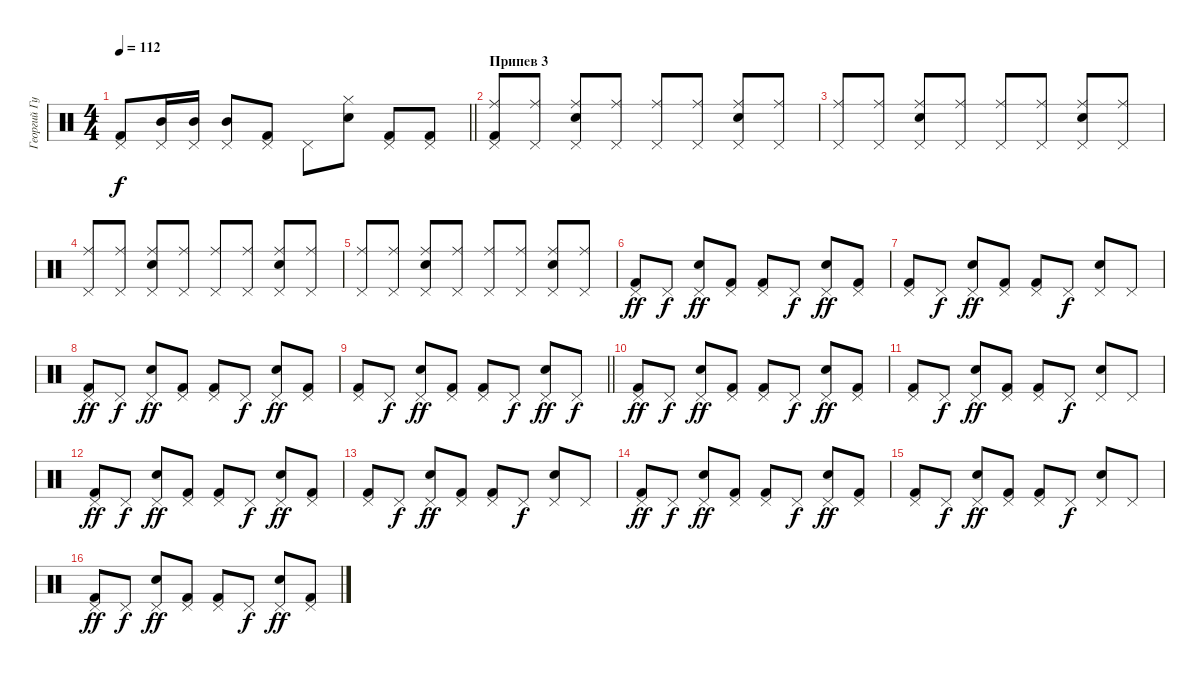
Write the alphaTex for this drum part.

\track ("Георгий Гурьянов" "Георгий Гу") {instrument percussion}
\staff {score}
\articulation defaults
\ts (4 4)
\tempo 112
\clef neutral
\barLineRight lightlight
\ks c
("Pedal Hi-Hat (hit)" "Kick (hit) 2").8{dy f} ("Pedal Hi-Hat (hit)" "Mid Tom (hit)").16 ("Pedal Hi-Hat (hit)" "Mid Tom (hit)").16 ("Pedal Hi-Hat (hit)" "Mid Tom (hit)").8 ("Pedal Hi-Hat (hit)" "Kick (hit) 2").8 "Pedal Hi-Hat (hit)".8 ("Hi-Hat (closed)" "Electric Snare (hit)").8 ("Pedal Hi-Hat (hit)" "Kick (hit) 2").8 ("Pedal Hi-Hat (hit)" "Kick (hit) 2").8 |
\section ("" "Припев 3")
("Pedal Hi-Hat (hit)" "Kick (hit) 2" "Ride (middle)").8 ("Pedal Hi-Hat (hit)" "Ride (middle)").8 ("Pedal Hi-Hat (hit)" "Electric Snare (hit)" "Ride (middle)").8 ("Pedal Hi-Hat (hit)" "Ride (middle)").8 ("Pedal Hi-Hat (hit)" "Ride (middle)").8 ("Pedal Hi-Hat (hit)" "Ride (middle)").8 ("Pedal Hi-Hat (hit)" "Electric Snare (hit)" "Ride (middle)").8 ("Pedal Hi-Hat (hit)" "Ride (middle)").8 |
("Pedal Hi-Hat (hit)" "Ride (middle)").8 ("Pedal Hi-Hat (hit)" "Ride (middle)").8 ("Pedal Hi-Hat (hit)" "Electric Snare (hit)" "Ride (middle)").8 ("Pedal Hi-Hat (hit)" "Ride (middle)").8 ("Pedal Hi-Hat (hit)" "Ride (middle)").8 ("Pedal Hi-Hat (hit)" "Ride (middle)").8 ("Pedal Hi-Hat (hit)" "Electric Snare (hit)" "Ride (middle)").8 ("Pedal Hi-Hat (hit)" "Ride (middle)").8 |
("Pedal Hi-Hat (hit)" "Ride (middle)").8 ("Pedal Hi-Hat (hit)" "Ride (middle)").8 ("Pedal Hi-Hat (hit)" "Electric Snare (hit)" "Ride (middle)").8 ("Pedal Hi-Hat (hit)" "Ride (middle)").8 ("Pedal Hi-Hat (hit)" "Ride (middle)").8 ("Pedal Hi-Hat (hit)" "Ride (middle)").8 ("Pedal Hi-Hat (hit)" "Electric Snare (hit)" "Ride (middle)").8 ("Pedal Hi-Hat (hit)" "Ride (middle)").8 |
("Pedal Hi-Hat (hit)" "Ride (middle)").8 ("Pedal Hi-Hat (hit)" "Ride (middle)").8 ("Pedal Hi-Hat (hit)" "Electric Snare (hit)" "Ride (middle)").8 ("Pedal Hi-Hat (hit)" "Ride (middle)").8 ("Pedal Hi-Hat (hit)" "Ride (middle)").8 ("Pedal Hi-Hat (hit)" "Ride (middle)").8 ("Pedal Hi-Hat (hit)" "Electric Snare (hit)" "Ride (middle)").8 ("Pedal Hi-Hat (hit)" "Ride (middle)").8 |
("Pedal Hi-Hat (hit)" "Kick (hit) 2").8{dy ff} "Pedal Hi-Hat (hit)".8{dy f} ("Pedal Hi-Hat (hit)" "Electric Snare (hit)").8{dy ff} ("Pedal Hi-Hat (hit)" "Kick (hit) 2").8 ("Pedal Hi-Hat (hit)" "Kick (hit) 2").8 "Pedal Hi-Hat (hit)".8{dy f} ("Pedal Hi-Hat (hit)" "Electric Snare (hit)").8{dy ff} ("Pedal Hi-Hat (hit)" "Kick (hit) 2").8 |
("Pedal Hi-Hat (hit)" "Kick (hit) 2").8 "Pedal Hi-Hat (hit)".8{dy f} ("Pedal Hi-Hat (hit)" "Electric Snare (hit)").8{dy ff} ("Pedal Hi-Hat (hit)" "Kick (hit) 2").8 ("Pedal Hi-Hat (hit)" "Kick (hit) 2").8 "Pedal Hi-Hat (hit)".8{dy f} ("Pedal Hi-Hat (hit)" "Electric Snare (hit)").8 "Pedal Hi-Hat (hit)".8 |
("Pedal Hi-Hat (hit)" "Kick (hit) 2").8{dy ff} "Pedal Hi-Hat (hit)".8{dy f} ("Pedal Hi-Hat (hit)" "Electric Snare (hit)").8{dy ff} ("Pedal Hi-Hat (hit)" "Kick (hit) 2").8 ("Pedal Hi-Hat (hit)" "Kick (hit) 2").8 "Pedal Hi-Hat (hit)".8{dy f} ("Pedal Hi-Hat (hit)" "Electric Snare (hit)").8{dy ff} ("Pedal Hi-Hat (hit)" "Kick (hit) 2").8 |
\barLineRight lightlight
("Pedal Hi-Hat (hit)" "Kick (hit) 2").8 "Pedal Hi-Hat (hit)".8{dy f} ("Pedal Hi-Hat (hit)" "Electric Snare (hit)").8{dy ff} ("Pedal Hi-Hat (hit)" "Kick (hit) 2").8 ("Pedal Hi-Hat (hit)" "Kick (hit) 2").8 "Pedal Hi-Hat (hit)".8{dy f} ("Pedal Hi-Hat (hit)" "Electric Snare (hit)").8{dy ff} "Pedal Hi-Hat (hit)".8{dy f} |
("Pedal Hi-Hat (hit)" "Kick (hit) 2").8{dy ff} "Pedal Hi-Hat (hit)".8{dy f} ("Pedal Hi-Hat (hit)" "Electric Snare (hit)").8{dy ff} ("Pedal Hi-Hat (hit)" "Kick (hit) 2").8 ("Pedal Hi-Hat (hit)" "Kick (hit) 2").8 "Pedal Hi-Hat (hit)".8{dy f} ("Pedal Hi-Hat (hit)" "Electric Snare (hit)").8{dy ff} ("Pedal Hi-Hat (hit)" "Kick (hit) 2").8 |
("Pedal Hi-Hat (hit)" "Kick (hit) 2").8 "Pedal Hi-Hat (hit)".8{dy f} ("Pedal Hi-Hat (hit)" "Electric Snare (hit)").8{dy ff} ("Pedal Hi-Hat (hit)" "Kick (hit) 2").8 ("Pedal Hi-Hat (hit)" "Kick (hit) 2").8 "Pedal Hi-Hat (hit)".8{dy f} ("Pedal Hi-Hat (hit)" "Electric Snare (hit)").8 "Pedal Hi-Hat (hit)".8 |
("Pedal Hi-Hat (hit)" "Kick (hit) 2").8{dy ff} "Pedal Hi-Hat (hit)".8{dy f} ("Pedal Hi-Hat (hit)" "Electric Snare (hit)").8{dy ff} ("Pedal Hi-Hat (hit)" "Kick (hit) 2").8 ("Pedal Hi-Hat (hit)" "Kick (hit) 2").8 "Pedal Hi-Hat (hit)".8{dy f} ("Pedal Hi-Hat (hit)" "Electric Snare (hit)").8{dy ff} ("Pedal Hi-Hat (hit)" "Kick (hit) 2").8 |
("Pedal Hi-Hat (hit)" "Kick (hit) 2").8 "Pedal Hi-Hat (hit)".8{dy f} ("Pedal Hi-Hat (hit)" "Electric Snare (hit)").8{dy ff} ("Pedal Hi-Hat (hit)" "Kick (hit) 2").8 ("Pedal Hi-Hat (hit)" "Kick (hit) 2").8 "Pedal Hi-Hat (hit)".8{dy f} ("Pedal Hi-Hat (hit)" "Electric Snare (hit)").8 "Pedal Hi-Hat (hit)".8 |
("Pedal Hi-Hat (hit)" "Kick (hit) 2").8{dy ff} "Pedal Hi-Hat (hit)".8{dy f} ("Pedal Hi-Hat (hit)" "Electric Snare (hit)").8{dy ff} ("Pedal Hi-Hat (hit)" "Kick (hit) 2").8 ("Pedal Hi-Hat (hit)" "Kick (hit) 2").8 "Pedal Hi-Hat (hit)".8{dy f} ("Pedal Hi-Hat (hit)" "Electric Snare (hit)").8{dy ff} ("Pedal Hi-Hat (hit)" "Kick (hit) 2").8 |
("Pedal Hi-Hat (hit)" "Kick (hit) 2").8 "Pedal Hi-Hat (hit)".8{dy f} ("Pedal Hi-Hat (hit)" "Electric Snare (hit)").8{dy ff} ("Pedal Hi-Hat (hit)" "Kick (hit) 2").8 ("Pedal Hi-Hat (hit)" "Kick (hit) 2").8 "Pedal Hi-Hat (hit)".8{dy f} ("Pedal Hi-Hat (hit)" "Electric Snare (hit)").8 "Pedal Hi-Hat (hit)".8 |
("Pedal Hi-Hat (hit)" "Kick (hit) 2").8{dy ff} "Pedal Hi-Hat (hit)".8{dy f} ("Pedal Hi-Hat (hit)" "Electric Snare (hit)").8{dy ff} ("Pedal Hi-Hat (hit)" "Kick (hit) 2").8 ("Pedal Hi-Hat (hit)" "Kick (hit) 2").8 "Pedal Hi-Hat (hit)".8{dy f} ("Pedal Hi-Hat (hit)" "Electric Snare (hit)").8{dy ff} ("Pedal Hi-Hat (hit)" "Kick (hit) 2").8
